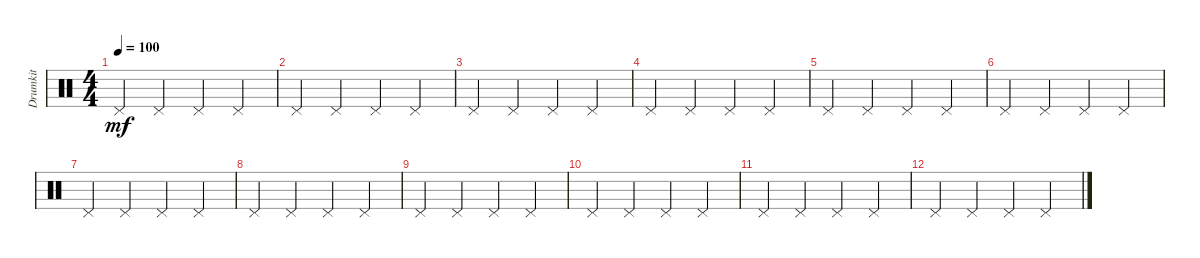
\track ("Drumkit" "Drumkit") {instrument percussion}
\staff {score}
\articulation defaults
\ts (4 4)
\tempo 100
\clef neutral
\ks c "Pedal Hi-Hat (hit)".4{dy mf} "Pedal Hi-Hat (hit)".4 "Pedal Hi-Hat (hit)".4 "Pedal Hi-Hat (hit)".4
|
"Pedal Hi-Hat (hit)".4 "Pedal Hi-Hat (hit)".4 "Pedal Hi-Hat (hit)".4 "Pedal Hi-Hat (hit)".4 |
"Pedal Hi-Hat (hit)".4 "Pedal Hi-Hat (hit)".4 "Pedal Hi-Hat (hit)".4 "Pedal Hi-Hat (hit)".4 |
"Pedal Hi-Hat (hit)".4 "Pedal Hi-Hat (hit)".4 "Pedal Hi-Hat (hit)".4 "Pedal Hi-Hat (hit)".4 |
"Pedal Hi-Hat (hit)".4 "Pedal Hi-Hat (hit)".4 "Pedal Hi-Hat (hit)".4 "Pedal Hi-Hat (hit)".4 |
"Pedal Hi-Hat (hit)".4 "Pedal Hi-Hat (hit)".4 "Pedal Hi-Hat (hit)".4 "Pedal Hi-Hat (hit)".4 |
"Pedal Hi-Hat (hit)".4 "Pedal Hi-Hat (hit)".4 "Pedal Hi-Hat (hit)".4 "Pedal Hi-Hat (hit)".4 |
"Pedal Hi-Hat (hit)".4 "Pedal Hi-Hat (hit)".4 "Pedal Hi-Hat (hit)".4 "Pedal Hi-Hat (hit)".4 |
"Pedal Hi-Hat (hit)".4 "Pedal Hi-Hat (hit)".4 "Pedal Hi-Hat (hit)".4 "Pedal Hi-Hat (hit)".4 |
"Pedal Hi-Hat (hit)".4 "Pedal Hi-Hat (hit)".4 "Pedal Hi-Hat (hit)".4 "Pedal Hi-Hat (hit)".4 |
"Pedal Hi-Hat (hit)".4 "Pedal Hi-Hat (hit)".4 "Pedal Hi-Hat (hit)".4 "Pedal Hi-Hat (hit)".4 |
"Pedal Hi-Hat (hit)".4 "Pedal Hi-Hat (hit)".4 "Pedal Hi-Hat (hit)".4 "Pedal Hi-Hat (hit)".4
